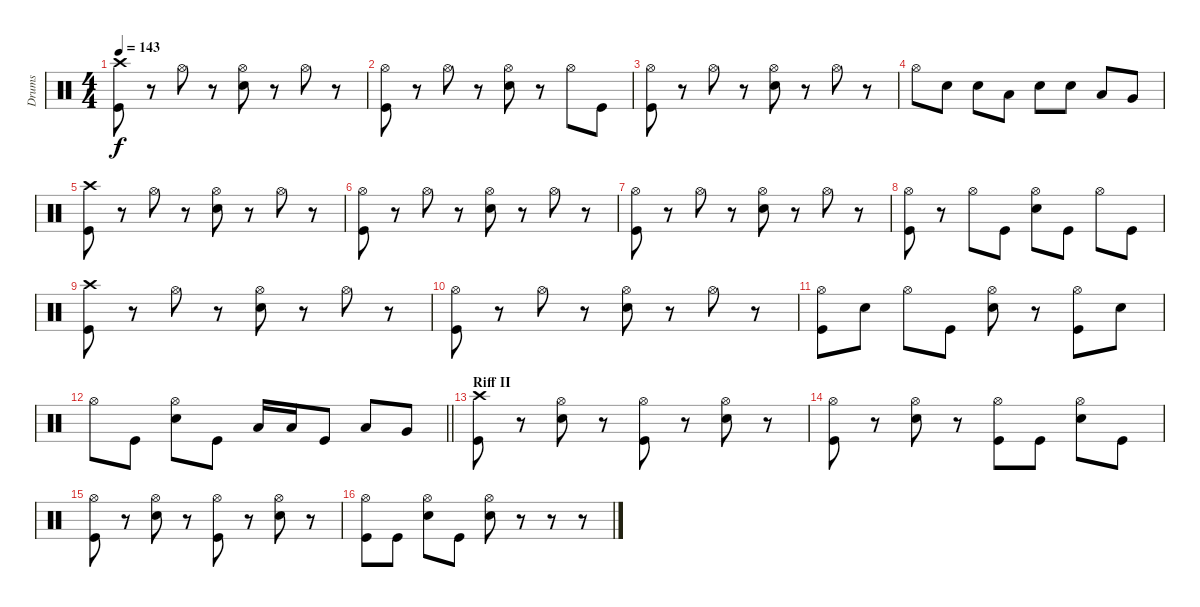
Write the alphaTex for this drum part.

\track ("Drums" "Drums") {instrument percussion}
\staff {score}
\articulation defaults
\ts (4 4)
\tempo 143
\clef neutral
\ks c
("Crash high (hit)" "Kick (hit)").8{dy f} r.8 "Hi-Hat (open)".8 r.8 ("Hi-Hat (open)" "Snare (hit) 2").8 r.8 "Hi-Hat (open)".8 r.8 |
("Hi-Hat (open)" "Kick (hit)").8 r.8 "Hi-Hat (open)".8 r.8 ("Hi-Hat (open)" "Snare (hit) 2").8 r.8 "Hi-Hat (open)".8 "Kick (hit)".8 |
("Hi-Hat (open)" "Kick (hit)").8 r.8 "Hi-Hat (open)".8 r.8 ("Hi-Hat (open)" "Snare (hit) 2").8 r.8 "Hi-Hat (open)".8 r.8 |
"Hi-Hat (open)".8 "Snare (hit) 2".8 "Snare (hit) 2".8 "Low Tom (hit)".8 "Snare (hit) 2".8 "Snare (hit) 2".8 "Low Tom (hit)".8 "Very Low Tom (hit)".8 |
("Crash high (hit)" "Kick (hit)").8 r.8 "Hi-Hat (open)".8 r.8 ("Hi-Hat (open)" "Snare (hit) 2").8 r.8 "Hi-Hat (open)".8 r.8 |
("Hi-Hat (open)" "Kick (hit)").8 r.8 "Hi-Hat (open)".8 r.8 ("Hi-Hat (open)" "Snare (hit) 2").8 r.8 "Hi-Hat (open)".8 r.8 |
("Hi-Hat (open)" "Kick (hit)").8 r.8 "Hi-Hat (open)".8 r.8 ("Hi-Hat (open)" "Snare (hit) 2").8 r.8 "Hi-Hat (open)".8 r.8 |
("Hi-Hat (open)" "Kick (hit)").8 r.8 "Hi-Hat (open)".8 "Kick (hit)".8 ("Hi-Hat (open)" "Snare (hit) 2").8 "Kick (hit)".8 "Hi-Hat (open)".8 "Kick (hit)".8 |
("Crash high (hit)" "Kick (hit)").8 r.8 "Hi-Hat (open)".8 r.8 ("Hi-Hat (open)" "Snare (hit) 2").8 r.8 "Hi-Hat (open)".8 r.8 |
("Hi-Hat (open)" "Kick (hit)").8 r.8 "Hi-Hat (open)".8 r.8 ("Hi-Hat (open)" "Snare (hit) 2").8 r.8 "Hi-Hat (open)".8 r.8 |
("Hi-Hat (open)" "Kick (hit)").8 "Snare (hit) 2".8 "Hi-Hat (open)".8 "Kick (hit)".8 ("Hi-Hat (open)" "Snare (hit) 2").8 r.8 ("Hi-Hat (open)" "Kick (hit)").8 "Snare (hit) 2".8 |
\barLineRight lightlight "Hi-Hat (open)".8 "Kick (hit)".8
("Hi-Hat (open)" "Snare (hit) 2").8 "Kick (hit)".8 "Low Tom (hit)".16 "Low Tom (hit)".16 "Kick (hit)".8 "Low Tom (hit)".8 "Very Low Tom (hit)".8 |
\section ("" "Riff II")
("Crash high (hit)" "Kick (hit)").8 r.8 ("Hi-Hat (open)" "Snare (hit) 2").8 r.8 ("Hi-Hat (open)" "Kick (hit)").8 r.8 ("Hi-Hat (open)" "Snare (hit) 2").8 r.8 |
("Hi-Hat (open)" "Kick (hit)").8 r.8 ("Hi-Hat (open)" "Snare (hit) 2").8 r.8 ("Hi-Hat (open)" "Kick (hit)").8 "Kick (hit)".8 ("Hi-Hat (open)" "Snare (hit) 2").8 "Kick (hit)".8 |
("Hi-Hat (open)" "Kick (hit)").8 r.8 ("Hi-Hat (open)" "Snare (hit) 2").8 r.8 ("Hi-Hat (open)" "Kick (hit)").8 r.8 ("Hi-Hat (open)" "Snare (hit) 2").8 r.8 |
("Hi-Hat (open)" "Kick (hit)").8 "Kick (hit)".8 ("Hi-Hat (open)" "Snare (hit) 2").8 "Kick (hit)".8 ("Hi-Hat (open)" "Snare (hit) 2").8 r.8 r.8 r.8
